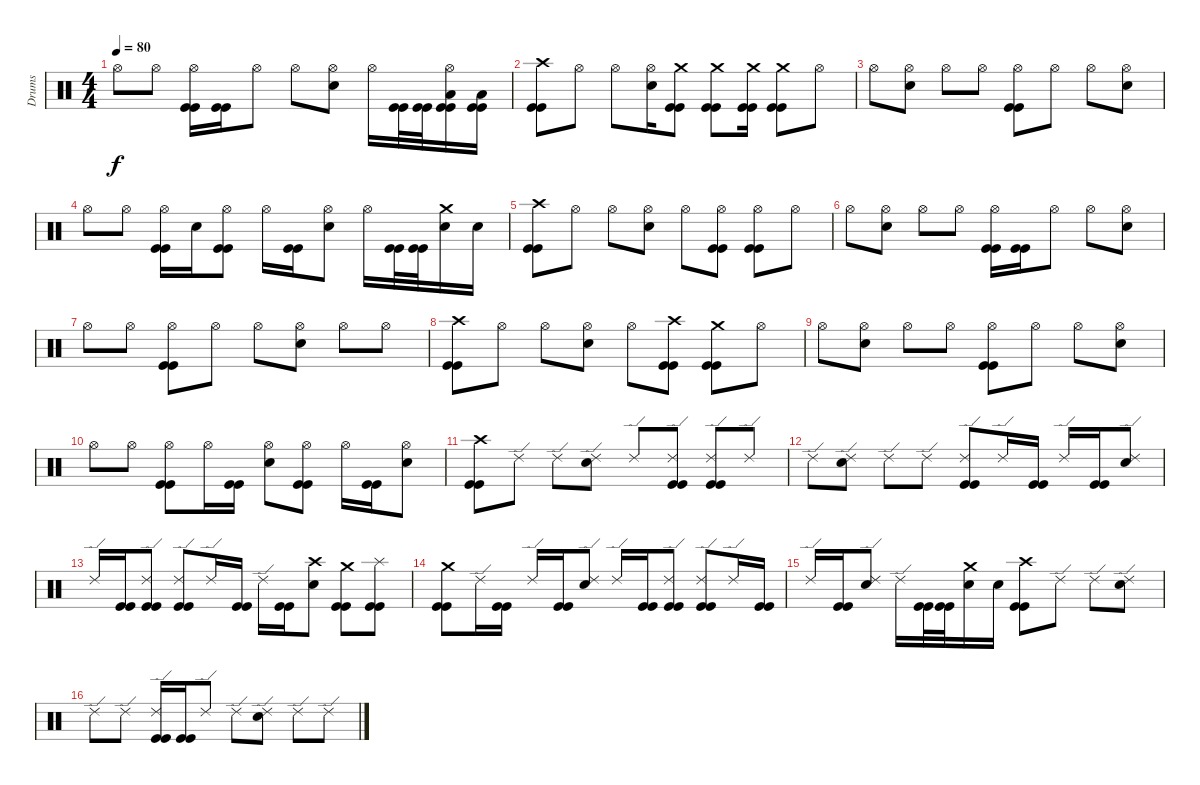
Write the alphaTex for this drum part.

\track ("Drums" "Drums") {instrument percussion}
\staff {score}
\articulation defaults
\ts (4 4)
\tempo 80
\clef neutral
\ks c "Hi-Hat (open)".8{dy f} "Hi-Hat (open)".8
("Kick (hit)" "Kick (hit)" "Hi-Hat (open)").16 ("Kick (hit)" "Kick (hit)").16 "Hi-Hat (open)".8 "Hi-Hat (open)".8 ("Electric Snare (hit)" "Hi-Hat (open)").8 "Hi-Hat (open)".16 ("Kick (hit)" "Kick (hit)").32 ("Kick (hit)" "Kick (hit)").32 ("Kick (hit)" "Kick (hit)" "Low Tom (hit)" "Hi-Hat (open)").16 ("Kick (hit)" "Kick (hit)" "Low Tom (hit)").16 |
("Kick (hit)" "Kick (hit)" "Crash high (hit)").8 "Hi-Hat (open)".8 "Hi-Hat (open)".8 ("Electric Snare (hit)" "Hi-Hat (open)").16 ("Kick (hit)" "Kick (hit)" "Crash medium (hit)").8 ("Kick (hit)" "Kick (hit)" "Crash medium (hit)").8 ("Kick (hit)" "Kick (hit)" "Crash medium (hit)").16 ("Kick (hit)" "Kick (hit)" "Crash medium (hit)").8 "Hi-Hat (open)".8 |
"Hi-Hat (open)".8 ("Electric Snare (hit)" "Hi-Hat (open)").8 "Hi-Hat (open)".8 "Hi-Hat (open)".8 ("Kick (hit)" "Kick (hit)" "Hi-Hat (open)").8 "Hi-Hat (open)".8 "Hi-Hat (open)".8 ("Electric Snare (hit)" "Hi-Hat (open)").8 |
"Hi-Hat (open)".8 "Hi-Hat (open)".8 ("Kick (hit)" "Kick (hit)" "Hi-Hat (open)").16 "Electric Snare (hit)".16 ("Kick (hit)" "Kick (hit)" "Hi-Hat (open)").8 "Hi-Hat (open)".16 ("Kick (hit)" "Kick (hit)").16 ("Electric Snare (hit)" "Hi-Hat (open)").8 "Hi-Hat (open)".16 ("Kick (hit)" "Kick (hit)").32 ("Kick (hit)" "Kick (hit)").32 ("Electric Snare (hit)" "Crash medium (hit)").16 "Electric Snare (hit)".16 |
("Kick (hit)" "Kick (hit)" "Crash high (hit)").8 "Hi-Hat (open)".8 "Hi-Hat (open)".8 ("Electric Snare (hit)" "Hi-Hat (open)").8 "Hi-Hat (open)".8 ("Kick (hit)" "Kick (hit)" "Hi-Hat (open)").8 ("Kick (hit)" "Kick (hit)" "Hi-Hat (open)").8 "Hi-Hat (open)".8 |
"Hi-Hat (open)".8 ("Electric Snare (hit)" "Hi-Hat (open)").8 "Hi-Hat (open)".8 "Hi-Hat (open)".8 ("Kick (hit)" "Kick (hit)" "Hi-Hat (open)").16 ("Kick (hit)" "Kick (hit)").16 "Hi-Hat (open)".8 "Hi-Hat (open)".8 ("Electric Snare (hit)" "Hi-Hat (open)").8 |
"Hi-Hat (open)".8 "Hi-Hat (open)".8 ("Kick (hit)" "Kick (hit)" "Hi-Hat (open)").8 "Hi-Hat (open)".8 "Hi-Hat (open)".8 ("Electric Snare (hit)" "Hi-Hat (open)").8 "Hi-Hat (open)".8 "Hi-Hat (open)".8 |
("Kick (hit)" "Kick (hit)" "Crash high (hit)").8 "Hi-Hat (open)".8 "Hi-Hat (open)".8 ("Electric Snare (hit)" "Hi-Hat (open)").8 "Hi-Hat (open)".8 ("Kick (hit)" "Kick (hit)" "Crash high (hit)").8 ("Kick (hit)" "Kick (hit)" "Crash medium (hit)").8 "Hi-Hat (open)".8 |
"Hi-Hat (open)".8 ("Electric Snare (hit)" "Hi-Hat (open)").8 "Hi-Hat (open)".8 "Hi-Hat (open)".8 ("Kick (hit)" "Kick (hit)" "Hi-Hat (open)").8 "Hi-Hat (open)".8 "Hi-Hat (open)".8 ("Electric Snare (hit)" "Hi-Hat (open)").8 |
"Hi-Hat (open)".8 "Hi-Hat (open)".8 ("Kick (hit)" "Kick (hit)" "Hi-Hat (open)").8 "Hi-Hat (open)".16 ("Kick (hit)" "Kick (hit)").16 ("Electric Snare (hit)" "Hi-Hat (open)").8 ("Kick (hit)" "Kick (hit)" "Hi-Hat (open)").8 "Hi-Hat (open)".16 ("Kick (hit)" "Kick (hit)").16 ("Electric Snare (hit)" "Hi-Hat (open)").8 |
("Kick (hit)" "Kick (hit)" "Crash high (hit)").8 "Ride (edge) 2".8 "Ride (edge) 2".8 ("Electric Snare (hit)" "Ride (edge) 2").8 "Ride (edge) 2".8 ("Kick (hit)" "Kick (hit)" "Ride (edge) 2").8 ("Kick (hit)" "Kick (hit)" "Ride (edge) 2").8 "Ride (edge) 2".8 |
"Ride (edge) 2".8 ("Electric Snare (hit)" "Ride (edge) 2").8 "Ride (edge) 2".8 "Ride (edge) 2".8 ("Kick (hit)" "Kick (hit)" "Ride (edge) 2").8 "Ride (edge) 2".16 ("Kick (hit)" "Kick (hit)").16 "Ride (edge) 2".16 ("Kick (hit)" "Kick (hit)").16 ("Electric Snare (hit)" "Ride (edge) 2").8 |
"Ride (edge) 2".16 ("Kick (hit)" "Kick (hit)").16 ("Kick (hit)" "Kick (hit)" "Ride (edge) 2").8 ("Kick (hit)" "Kick (hit)" "Ride (edge) 2").8 "Ride (edge) 2".16 ("Kick (hit)" "Kick (hit)").16 "Ride (edge) 2".16 ("Kick (hit)" "Kick (hit)").16 ("Electric Snare (hit)" "Crash high (hit)").8 ("Kick (hit)" "Kick (hit)" "Crash medium (hit)").8 ("Kick (hit)" "Kick (hit)" "Splash (hit)").8 |
("Kick (hit)" "Kick (hit)" "Crash medium (hit)").8 "Ride (edge) 2".16 ("Kick (hit)" "Kick (hit)").16 "Ride (edge) 2".16 ("Kick (hit)" "Kick (hit)").16 ("Electric Snare (hit)" "Ride (edge) 2").8 "Ride (edge) 2".16 ("Kick (hit)" "Kick (hit)").16 ("Kick (hit)" "Kick (hit)" "Ride (edge) 2").8 ("Kick (hit)" "Kick (hit)" "Ride (edge) 2").8 "Ride (edge) 2".16 ("Kick (hit)" "Kick (hit)").16 |
"Ride (edge) 2".16 ("Kick (hit)" "Kick (hit)").16 ("Electric Snare (hit)" "Ride (edge) 2").8 "Ride (edge) 2".16 ("Kick (hit)" "Kick (hit)").32 ("Kick (hit)" "Kick (hit)").32 ("Electric Snare (hit)" "Crash medium (hit)").16 "Electric Snare (hit)".16 ("Kick (hit)" "Kick (hit)" "Crash high (hit)").8 "Ride (edge) 2".8 "Ride (edge) 2".8 ("Electric Snare (hit)" "Ride (edge) 2").8 |
"Ride (edge) 2".8 "Ride (edge) 2".8 ("Kick (hit)" "Kick (hit)" "Ride (edge) 2").16 ("Kick (hit)" "Kick (hit)").16 "Ride (edge) 2".8 "Ride (edge) 2".8 ("Electric Snare (hit)" "Ride (edge) 2").8 "Ride (edge) 2".8 "Ride (edge) 2".8
